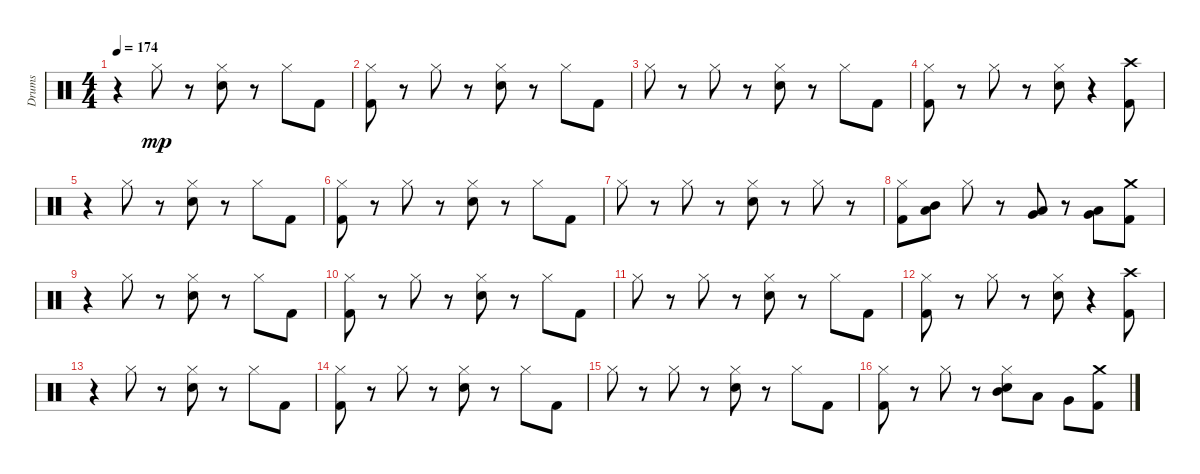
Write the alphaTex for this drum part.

\track ("Drums" "Drums") {instrument percussion}
\staff {score}
\articulation defaults
\ts (4 4)
\tempo 174
\clef neutral
\ks c
r.4{dy mp} "Hi-Hat (closed)".8 r.8 ("Snare (hit) 2" "Hi-Hat (closed)").8 r.8 "Hi-Hat (closed)".8 "Kick (hit) 2".8 |
("Hi-Hat (closed)" "Kick (hit) 2").8 r.8 "Hi-Hat (closed)".8 r.8 ("Snare (hit) 2" "Hi-Hat (closed)").8 r.8 "Hi-Hat (closed)".8 "Kick (hit) 2".8 |
"Hi-Hat (closed)".8 r.8 "Hi-Hat (closed)".8 r.8 ("Snare (hit) 2" "Hi-Hat (closed)").8 r.8 "Hi-Hat (closed)".8 "Kick (hit) 2".8 |
("Kick (hit) 2" "Hi-Hat (closed)").8 r.8 "Hi-Hat (closed)".8 r.8 ("Snare (hit) 2" "Hi-Hat (closed)").8 r.4 ("Crash high (hit)" "Kick (hit) 2").8 |
r.4 "Hi-Hat (closed)".8 r.8 ("Hi-Hat (closed)" "Snare (hit) 2").8 r.8 "Hi-Hat (closed)".8 "Kick (hit) 2".8 |
("Kick (hit) 2" "Hi-Hat (closed)").8 r.8 "Hi-Hat (closed)".8 r.8 ("Snare (hit) 2" "Hi-Hat (closed)").8 r.8 "Hi-Hat (closed)".8 "Kick (hit) 2".8 |
"Hi-Hat (closed)".8 r.8 "Hi-Hat (closed)".8 r.8 ("Hi-Hat (closed)" "Snare (hit) 2").8 r.8 "Hi-Hat (closed)".8 r.8 |
("Kick (hit) 2" "Hi-Hat (closed)").8 ("Low Tom (hit)" "Mid Tom (hit)").8 "Hi-Hat (closed)".8 r.8 ("Very Low Tom (hit)" "Low Tom (hit)").8 r.8 ("Very Low Tom (hit)" "Low Floor Tom (hit)").8 ("Kick (hit) 2" "Crash medium (hit)").8 |
r.4 "Hi-Hat (closed)".8 r.8 ("Snare (hit) 2" "Hi-Hat (closed)").8 r.8 "Hi-Hat (closed)".8 "Kick (hit) 2".8 |
("Hi-Hat (closed)" "Kick (hit) 2").8 r.8 "Hi-Hat (closed)".8 r.8 ("Snare (hit) 2" "Hi-Hat (closed)").8 r.8 "Hi-Hat (closed)".8 "Kick (hit) 2".8 |
"Hi-Hat (closed)".8 r.8 "Hi-Hat (closed)".8 r.8 ("Hi-Hat (closed)" "Snare (hit) 2").8 r.8 "Hi-Hat (closed)".8 "Kick (hit) 2".8 |
("Kick (hit) 2" "Hi-Hat (closed)").8 r.8 "Hi-Hat (closed)".8 r.8 ("Snare (hit) 2" "Hi-Hat (closed)").8 r.4 ("Crash high (hit)" "Kick (hit) 2").8 |
r.4 "Hi-Hat (closed)".8 r.8 ("Hi-Hat (closed)" "Snare (hit) 2").8 r.8 "Hi-Hat (closed)".8 "Kick (hit) 2".8 |
("Hi-Hat (closed)" "Kick (hit) 2").8 r.8 "Hi-Hat (closed)".8 r.8 ("Snare (hit) 2" "Hi-Hat (closed)").8 r.8 "Hi-Hat (closed)".8 "Kick (hit) 2".8 |
"Hi-Hat (closed)".8 r.8 "Hi-Hat (closed)".8 r.8 ("Snare (hit) 2" "Hi-Hat (closed)").8 r.8 "Hi-Hat (closed)".8 "Kick (hit) 2".8 |
("Kick (hit) 2" "Hi-Hat (closed)").8 r.8 "Hi-Hat (closed)".8 r.8 ("Mid Tom (hit)" "Snare (hit) 2" "Hi-Hat (closed)").8 "Low Tom (hit)".8 "Very Low Tom (hit)".8 ("Kick (hit) 2" "Crash medium (hit)").8
